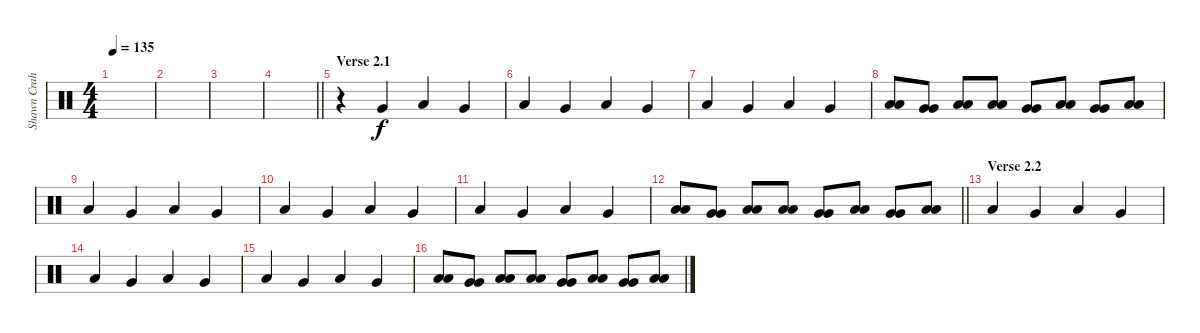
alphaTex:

\track ("Shawn Crahan" "Shawn Crah") {instrument percussion}
\staff {score}
\articulation defaults
\ts (4 4)
\tempo 135
\clef neutral
\ks c
|
|
|
\barLineRight lightlight
|
\section ("" "Verse 2.1")
r.4 "Very Low Tom (hit)".4 "Low Floor Tom (hit)".4 "Very Low Tom (hit)".4 |
"Low Floor Tom (hit)".4 "Very Low Tom (hit)".4 "Low Floor Tom (hit)".4 "Very Low Tom (hit)".4 |
"Low Floor Tom (hit)".4 "Very Low Tom (hit)".4 "Low Floor Tom (hit)".4 "Very Low Tom (hit)".4 |
("Low Tom (hit)" "Low Tom (hit)").8 ("Very Low Tom (hit)" "Very Low Tom (hit)").8 ("Low Floor Tom (hit)" "Low Floor Tom (hit)").8 ("Low Floor Tom (hit)" "Low Floor Tom (hit)").8 ("Very Low Tom (hit)" "Very Low Tom (hit)").8 ("Low Floor Tom (hit)" "Low Floor Tom (hit)").8 ("Very Low Tom (hit)" "Very Low Tom (hit)").8 ("Low Floor Tom (hit)" "Low Floor Tom (hit)").8 |
"Low Floor Tom (hit)".4 "Very Low Tom (hit)".4 "Low Floor Tom (hit)".4 "Very Low Tom (hit)".4 |
"Low Floor Tom (hit)".4 "Very Low Tom (hit)".4 "Low Floor Tom (hit)".4 "Very Low Tom (hit)".4 |
"Low Floor Tom (hit)".4 "Very Low Tom (hit)".4 "Low Floor Tom (hit)".4 "Very Low Tom (hit)".4 |
\barLineRight lightlight
("Low Tom (hit)" "Low Tom (hit)").8 ("Very Low Tom (hit)" "Very Low Tom (hit)").8 ("Low Floor Tom (hit)" "Low Floor Tom (hit)").8 ("Low Floor Tom (hit)" "Low Floor Tom (hit)").8 ("Very Low Tom (hit)" "Very Low Tom (hit)").8 ("Low Floor Tom (hit)" "Low Floor Tom (hit)").8 ("Very Low Tom (hit)" "Very Low Tom (hit)").8 ("Low Floor Tom (hit)" "Low Floor Tom (hit)").8 |
\section ("" "Verse 2.2")
"Low Floor Tom (hit)".4 "Very Low Tom (hit)".4 "Low Floor Tom (hit)".4 "Very Low Tom (hit)".4 |
"Low Floor Tom (hit)".4 "Very Low Tom (hit)".4 "Low Floor Tom (hit)".4 "Very Low Tom (hit)".4 |
"Low Floor Tom (hit)".4 "Very Low Tom (hit)".4 "Low Floor Tom (hit)".4 "Very Low Tom (hit)".4 |
("Low Tom (hit)" "Low Tom (hit)").8 ("Very Low Tom (hit)" "Very Low Tom (hit)").8 ("Low Floor Tom (hit)" "Low Floor Tom (hit)").8 ("Low Floor Tom (hit)" "Low Floor Tom (hit)").8 ("Very Low Tom (hit)" "Very Low Tom (hit)").8 ("Low Floor Tom (hit)" "Low Floor Tom (hit)").8 ("Very Low Tom (hit)" "Very Low Tom (hit)").8 ("Low Floor Tom (hit)" "Low Floor Tom (hit)").8
